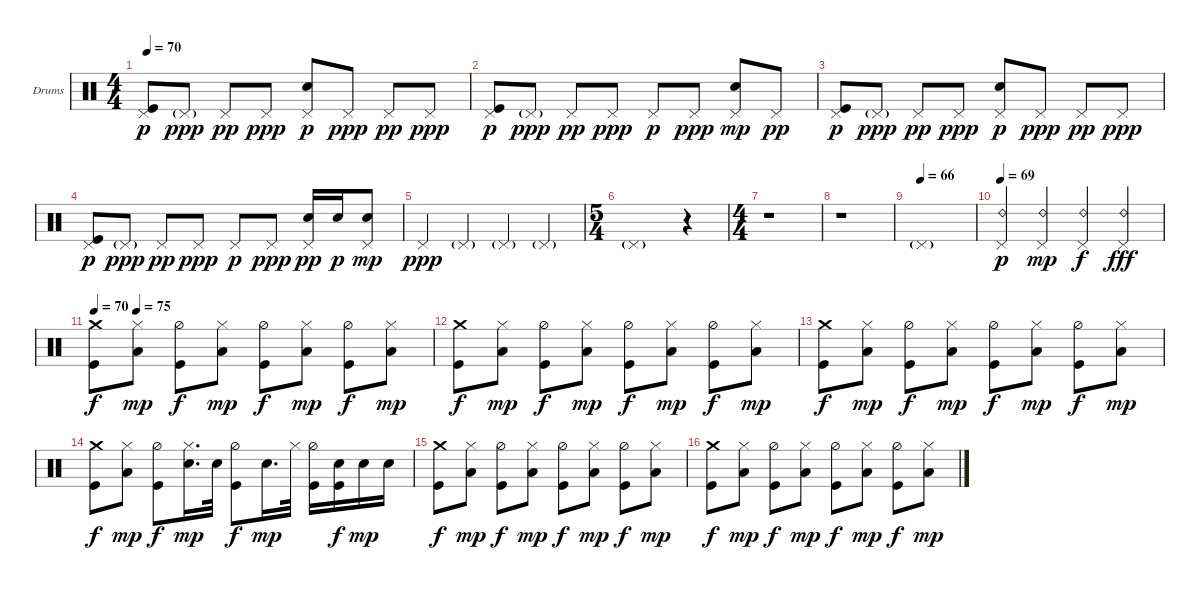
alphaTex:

\defaultSystemsLayout 4
\bracketExtendMode groupsimilarinstruments
\firstSystemTrackNameOrientation horizontal
\otherSystemsTrackNameOrientation horizontal
\track ("Jeremiah Green" "Drums") {instrument percussion}
\staff {score}
\articulation defaults
\ts (4 4)
\tempo 70
\clef neutral
\scale
0.333333
\ks c
("Pedal Hi-Hat (hit)" "Kick (hit)").8{dy p} "Pedal Hi-Hat (hit)"{g}.8{dy ppp} "Pedal Hi-Hat (hit)".8{dy pp} "Pedal Hi-Hat (hit)".8{dy ppp} ("Snare (hit) 2" "Pedal Hi-Hat (hit)").8{dy p} "Pedal Hi-Hat (hit)".8{dy ppp} "Pedal Hi-Hat (hit)".8{dy pp} "Pedal Hi-Hat (hit)".8{dy ppp} |
\scale
0.333333 ("Pedal Hi-Hat (hit)" "Kick (hit)").8{dy p} "Pedal Hi-Hat (hit)"{g}.8{dy ppp} "Pedal Hi-Hat (hit)".8{dy pp} "Pedal Hi-Hat (hit)".8{dy ppp} "Pedal Hi-Hat (hit)".8{dy p} "Pedal Hi-Hat (hit)".8{dy ppp} ("Pedal Hi-Hat (hit)" "Snare (hit) 2").8{dy mp} "Pedal Hi-Hat (hit)".8{dy pp} |
\scale
0.333333 ("Pedal Hi-Hat (hit)" "Kick (hit)").8{dy p} "Pedal Hi-Hat (hit)"{g}.8{dy ppp} "Pedal Hi-Hat (hit)".8{dy pp} "Pedal Hi-Hat (hit)".8{dy ppp} ("Snare (hit) 2" "Pedal Hi-Hat (hit)").8{dy p} "Pedal Hi-Hat (hit)".8{dy ppp} "Pedal Hi-Hat (hit)".8{dy pp} "Pedal Hi-Hat (hit)".8{dy ppp} |
\scale
0.333333 ("Pedal Hi-Hat (hit)" "Kick (hit)").8{dy p} "Pedal Hi-Hat (hit)"{g}.8{dy ppp} "Pedal Hi-Hat (hit)".8{dy pp} "Pedal Hi-Hat (hit)".8{dy ppp} "Pedal Hi-Hat (hit)".8{dy p} "Pedal Hi-Hat (hit)".8{dy ppp} ("Pedal Hi-Hat (hit)" "Snare (hit) 2").16{dy pp} "Snare (hit) 2".16{dy p} ("Pedal Hi-Hat (hit)" "Snare (hit) 2").8{dy mp} |
\scale
0.333333 "Pedal Hi-Hat (hit)".4{dy ppp} "Pedal Hi-Hat (hit)"{g}.4 "Pedal Hi-Hat (hit)"{g}.4 "Pedal Hi-Hat (hit)"{g}.4 |
\ts (5 4)
\scale
0.390805 "Pedal Hi-Hat (hit)"{g}.1 r.4 |
\ts (4 4)
\scale
0.390805 r.1 |
\scale
0.218391 r.1 |
\tempo 66
\scale
0.333333 "Pedal Hi-Hat (hit)"{g}.1 |
\tempo 69
\scale
0.333333 ("Ride (bell) 2" "Pedal Hi-Hat (hit)").4{dy p} ("Ride (bell) 2" "Pedal Hi-Hat (hit)").4{dy mp} ("Ride (bell) 2" "Pedal Hi-Hat (hit)").4{dy f} ("Ride (bell) 2" "Pedal Hi-Hat (hit)").4{dy fff} |
\tempo 70
\tempo (75 0.125)
\scale
0.333333 ("Kick (hit)" "Crash medium (hit)").8{dy f} ("Low Tom (hit)" "Hi-Hat (closed)").8{dy mp} ("Kick (hit)" "Hi-Hat (half)").8{dy f} ("Low Tom (hit)" "Hi-Hat (closed)").8{dy mp} ("Kick (hit)" "Hi-Hat (half)").8{dy f} ("Low Tom (hit)" "Hi-Hat (closed)").8{dy mp} ("Kick (hit)" "Hi-Hat (half)").8{dy f} ("Low Tom (hit)" "Hi-Hat (closed)").8{dy mp} |
\scale
0.333333 ("Kick (hit)" "Crash medium (hit)").8{dy f} ("Low Tom (hit)" "Hi-Hat (closed)").8{dy mp} ("Kick (hit)" "Hi-Hat (half)").8{dy f} ("Low Tom (hit)" "Hi-Hat (closed)").8{dy mp} ("Kick (hit)" "Hi-Hat (half)").8{dy f} ("Low Tom (hit)" "Hi-Hat (closed)").8{dy mp} ("Kick (hit)" "Hi-Hat (half)").8{dy f} ("Low Tom (hit)" "Hi-Hat (closed)").8{dy mp} |
\scale
0.333333 ("Kick (hit)" "Crash medium (hit)").8{dy f} ("Low Tom (hit)" "Hi-Hat (closed)").8{dy mp} ("Kick (hit)" "Hi-Hat (half)").8{dy f} ("Low Tom (hit)" "Hi-Hat (closed)").8{dy mp} ("Kick (hit)" "Hi-Hat (half)").8{dy f} ("Low Tom (hit)" "Hi-Hat (closed)").8{dy mp} ("Kick (hit)" "Hi-Hat (half)").8{dy f} ("Low Tom (hit)" "Hi-Hat (closed)").8{dy mp} |
\scale
0.333333 ("Kick (hit)" "Crash medium (hit)").8{dy f} ("Low Tom (hit)" "Hi-Hat (closed)").8{dy mp} ("Kick (hit)" "Hi-Hat (half)").8{dy f} ("Hi-Hat (closed)" "Snare (hit) 2").16{d dy mp} "Snare (hit) 2".32 ("Hi-Hat (half)" "Kick (hit)").8{dy f} "Snare (hit) 2".16{d dy mp} "Hi-Hat (closed)".32 ("Kick (hit)" "Hi-Hat (half)").16 ("Kick (hit)" "Snare (hit) 2").16{dy f} "Snare (hit) 2".16{dy mp} "Snare (hit) 2".16 |
\scale
0.333333 ("Kick (hit)" "Crash medium (hit)").8{dy f} ("Low Tom (hit)" "Hi-Hat (closed)").8{dy mp} ("Kick (hit)" "Hi-Hat (half)").8{dy f} ("Low Tom (hit)" "Hi-Hat (closed)").8{dy mp} ("Kick (hit)" "Hi-Hat (half)").8{dy f} ("Low Tom (hit)" "Hi-Hat (closed)").8{dy mp} ("Kick (hit)" "Hi-Hat (half)").8{dy f} ("Low Tom (hit)" "Hi-Hat (closed)").8{dy mp} |
\scale
0.333333 ("Kick (hit)" "Crash medium (hit)").8{dy f} ("Low Tom (hit)" "Hi-Hat (closed)").8{dy mp} ("Kick (hit)" "Hi-Hat (half)").8{dy f} ("Low Tom (hit)" "Hi-Hat (closed)").8{dy mp} ("Kick (hit)" "Hi-Hat (half)").8{dy f} ("Low Tom (hit)" "Hi-Hat (closed)").8{dy mp} ("Kick (hit)" "Hi-Hat (half)").8{dy f} ("Low Tom (hit)" "Hi-Hat (closed)").8{dy mp}
